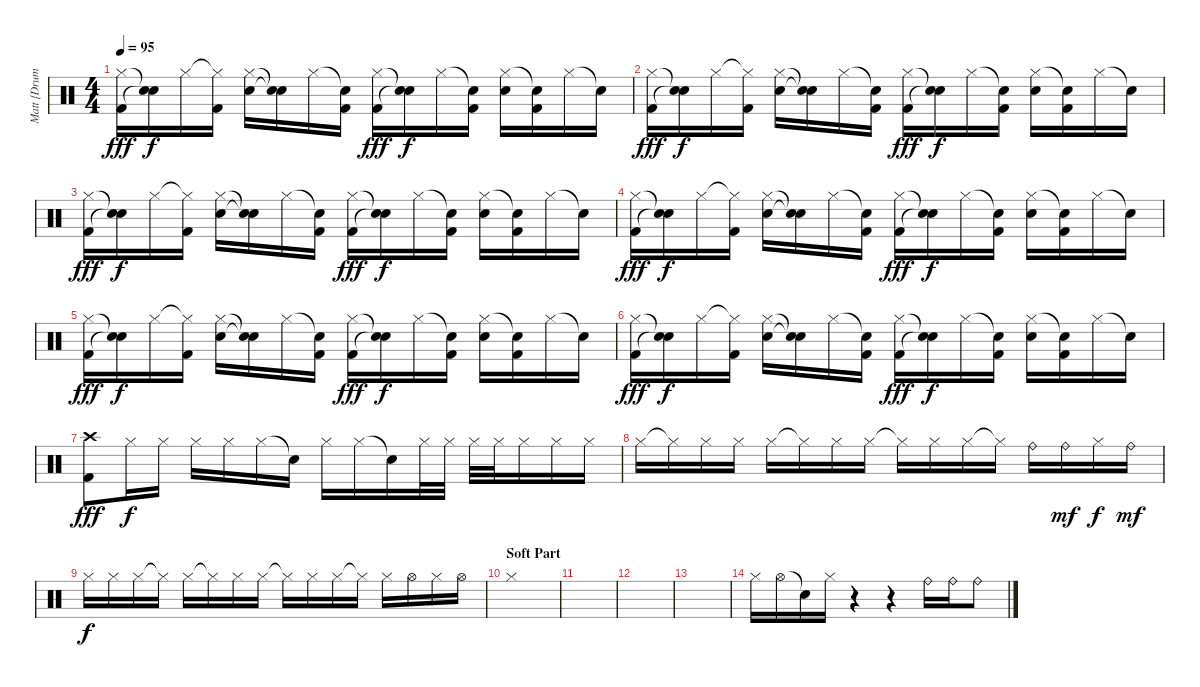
\track ("Matt {Drums}" "Matt {Drum") {instrument percussion}
\staff {score}
\articulation defaults
\ts (4 4)
\tempo 95
\clef neutral
\ks c
("Hi-Hat (closed)" "Kick (hit) 2").16{dy fff} ("Snare (hit)"{t} "Snare (hit)"{t}).16{dy f} "Hi-Hat (closed)".16 ("Hi-Hat (closed)"{t} "Kick (hit) 2").16 ("Hi-Hat (closed)" "Electric Snare (hit)").16 ("Snare (hit)"{t} "Snare (hit)"{t}).16 "Hi-Hat (closed)".16 ("Snare (hit)"{t} "Kick (hit) 2").16 ("Hi-Hat (closed)" "Kick (hit) 2").16{dy fff} ("Snare (hit)"{t} "Snare (hit)"{t}).16{dy f} "Hi-Hat (closed)".16 ("Snare (hit)"{t} "Kick (hit) 2").16 ("Hi-Hat (closed)" "Electric Snare (hit)").16 ("Snare (hit)"{t} "Kick (hit) 2").16 "Hi-Hat (closed)".16 "Snare (hit)"{t}.16 |
("Hi-Hat (closed)" "Kick (hit) 2").16{dy fff} ("Snare (hit)"{t} "Snare (hit)"{t}).16{dy f} "Hi-Hat (closed)".16 ("Hi-Hat (closed)"{t} "Kick (hit) 2").16 ("Hi-Hat (closed)" "Electric Snare (hit)").16 ("Snare (hit)"{t} "Snare (hit)"{t}).16 "Hi-Hat (closed)".16 ("Snare (hit)"{t} "Kick (hit) 2").16 ("Hi-Hat (closed)" "Kick (hit) 2").16{dy fff} ("Snare (hit)"{t} "Snare (hit)"{t}).16{dy f} "Hi-Hat (closed)".16 ("Snare (hit)"{t} "Kick (hit) 2").16 ("Hi-Hat (closed)" "Electric Snare (hit)").16 ("Snare (hit)"{t} "Kick (hit) 2").16 "Hi-Hat (closed)".16 "Snare (hit)"{t}.16 |
("Hi-Hat (closed)" "Kick (hit) 2").16{dy fff} ("Snare (hit)"{t} "Snare (hit)"{t}).16{dy f} "Hi-Hat (closed)".16 ("Hi-Hat (closed)"{t} "Kick (hit) 2").16 ("Hi-Hat (closed)" "Electric Snare (hit)").16 ("Snare (hit)"{t} "Snare (hit)"{t}).16 "Hi-Hat (closed)".16 ("Snare (hit)"{t} "Kick (hit) 2").16 ("Hi-Hat (closed)" "Kick (hit) 2").16{dy fff} ("Snare (hit)"{t} "Snare (hit)"{t}).16{dy f} "Hi-Hat (closed)".16 ("Snare (hit)"{t} "Kick (hit) 2").16 ("Hi-Hat (closed)" "Electric Snare (hit)").16 ("Snare (hit)"{t} "Kick (hit) 2").16 "Hi-Hat (closed)".16 "Snare (hit)"{t}.16 |
("Hi-Hat (closed)" "Kick (hit) 2").16{dy fff} ("Snare (hit)"{t} "Snare (hit)"{t}).16{dy f} "Hi-Hat (closed)".16 ("Hi-Hat (closed)"{t} "Kick (hit) 2").16 ("Hi-Hat (closed)" "Electric Snare (hit)").16 ("Snare (hit)"{t} "Snare (hit)"{t}).16 "Hi-Hat (closed)".16 ("Snare (hit)"{t} "Kick (hit) 2").16 ("Hi-Hat (closed)" "Kick (hit) 2").16{dy fff} ("Snare (hit)"{t} "Snare (hit)"{t}).16{dy f} "Hi-Hat (closed)".16 ("Snare (hit)"{t} "Kick (hit) 2").16 ("Hi-Hat (closed)" "Electric Snare (hit)").16 ("Snare (hit)"{t} "Kick (hit) 2").16 "Hi-Hat (closed)".16 "Snare (hit)"{t}.16 |
("Hi-Hat (closed)" "Kick (hit) 2").16{dy fff} ("Snare (hit)"{t} "Snare (hit)"{t}).16{dy f} "Hi-Hat (closed)".16 ("Hi-Hat (closed)"{t} "Kick (hit) 2").16 ("Hi-Hat (closed)" "Electric Snare (hit)").16 ("Snare (hit)"{t} "Snare (hit)"{t}).16 "Hi-Hat (closed)".16 ("Snare (hit)"{t} "Kick (hit) 2").16 ("Hi-Hat (closed)" "Kick (hit) 2").16{dy fff} ("Snare (hit)"{t} "Snare (hit)"{t}).16{dy f} "Hi-Hat (closed)".16 ("Snare (hit)"{t} "Kick (hit) 2").16 ("Hi-Hat (closed)" "Electric Snare (hit)").16 ("Snare (hit)"{t} "Kick (hit) 2").16 "Hi-Hat (closed)".16 "Snare (hit)"{t}.16 |
("Hi-Hat (closed)" "Kick (hit) 2").16{dy fff} ("Snare (hit)"{t} "Snare (hit)"{t}).16{dy f} "Hi-Hat (closed)".16 ("Hi-Hat (closed)"{t} "Kick (hit) 2").16 ("Hi-Hat (closed)" "Electric Snare (hit)").16 ("Snare (hit)"{t} "Snare (hit)"{t}).16 "Hi-Hat (closed)".16 ("Snare (hit)"{t} "Kick (hit) 2").16 ("Hi-Hat (closed)" "Kick (hit) 2").16{dy fff} ("Snare (hit)"{t} "Snare (hit)"{t}).16{dy f} "Hi-Hat (closed)".16 ("Snare (hit)"{t} "Kick (hit) 2").16 ("Hi-Hat (closed)" "Electric Snare (hit)").16 ("Snare (hit)"{t} "Kick (hit) 2").16 "Hi-Hat (closed)".16 "Snare (hit)"{t}.16 |
("Crash high (hit)" "Kick (hit) 2").8{dy fff} "Hi-Hat (closed)".16{dy f} "Hi-Hat (closed)".16 "Hi-Hat (closed)".16 "Hi-Hat (closed)".16 "Hi-Hat (closed)".16 "Snare (hit)"{t}.16 "Hi-Hat (closed)".16 "Hi-Hat (closed)".16 "Snare (hit)"{t}.16 "Hi-Hat (closed)".32 "Hi-Hat (closed)".32 "Hi-Hat (closed)".32 "Hi-Hat (closed)".32 "Hi-Hat (closed)".16 "Hi-Hat (closed)".16 "Hi-Hat (closed)".16 |
"Hi-Hat (closed)".16 "Hi-Hat (closed)"{t}.16 "Hi-Hat (closed)".16 "Hi-Hat (closed)".16 "Hi-Hat (closed)".16 "Hi-Hat (closed)"{t}.16 "Hi-Hat (closed)".16 "Hi-Hat (closed)".16 "Hi-Hat (closed)"{t}.16 "Hi-Hat (closed)".16 "Hi-Hat (closed)".16 "Hi-Hat (closed)"{t}.16 "Ride (bell)".16 "Ride (bell)".16{dy mf} "Hi-Hat (closed)".16{dy f} "Ride (bell)".16{dy mf} |
"Hi-Hat (closed)".16{dy f} "Hi-Hat (closed)".16 "Hi-Hat (closed)".16 "Hi-Hat (closed)"{t}.16 "Hi-Hat (closed)".16 "Hi-Hat (closed)"{t}.16 "Hi-Hat (closed)".16 "Hi-Hat (closed)".16 "Hi-Hat (closed)"{t}.16 "Hi-Hat (closed)".16 "Hi-Hat (closed)".16 "Hi-Hat (closed)"{t}.16 "Hi-Hat (closed)".16 "Hi-Hat (open)".16 "Hi-Hat (closed)".16 "Hi-Hat (open)".16 |
\section ("" "Soft Part")
"Hi-Hat (closed)".1 |
|
|
|
"Hi-Hat (closed)".16 "Hi-Hat (open)".16 "Snare (hit)"{t}.16 "Hi-Hat (closed)".16 r.4 r.4 "Ride (bell)".16 "Ride (bell)".16 "Ride (bell)".8
